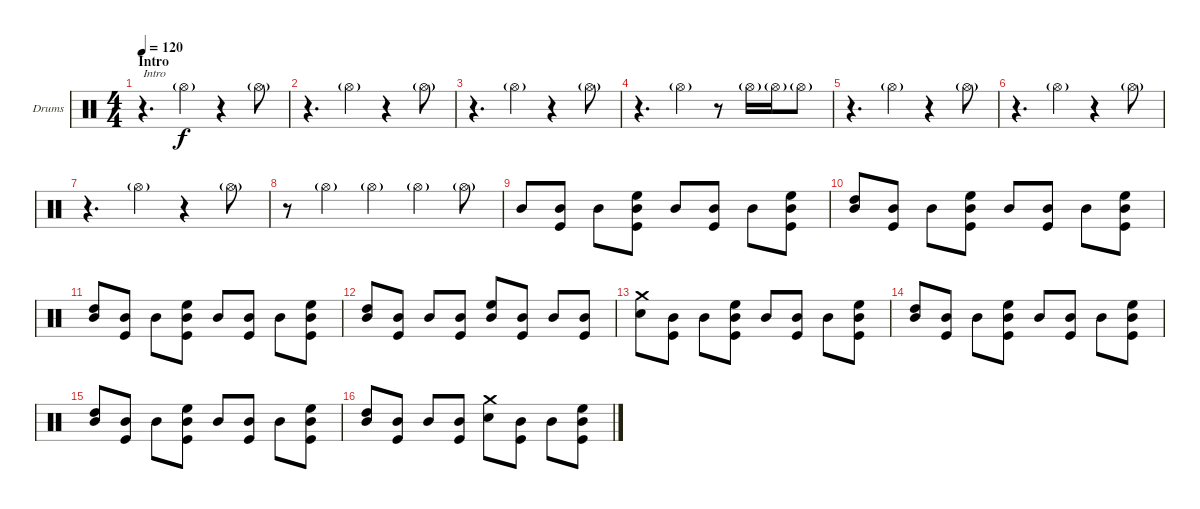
\bracketExtendMode groupsimilarinstruments
\firstSystemTrackNameOrientation horizontal
\otherSystemsTrackNameOrientation horizontal
\track ("Drumkit" "Drums") {instrument percussion}
\staff {score}
\articulation defaults
\ts (4 4)
\section ("" "Intro")
\tempo 120
\clef neutral
\ks c
r.4{d txt "Intro" dy f} "Hi-Hat (open)"{g}.4 r.4 "Hi-Hat (open)"{g}.8 |
r.4{d} "Hi-Hat (open)"{g}.4 r.4 "Hi-Hat (open)"{g}.8 |
r.4{d} "Hi-Hat (open)"{g}.4 r.4 "Hi-Hat (open)"{g}.8 |
r.4{d} "Hi-Hat (open)"{g}.4 r.8 "Hi-Hat (open)"{g}.16 "Hi-Hat (open)"{g}.16 "Hi-Hat (open)"{g}.8 |
r.4{d} "Hi-Hat (open)"{g}.4 r.4 "Hi-Hat (open)"{g}.8 |
r.4{d} "Hi-Hat (open)"{g}.4 r.4 "Hi-Hat (open)"{g}.8 |
r.4{d} "Hi-Hat (open)"{g}.4 r.4 "Hi-Hat (open)"{g}.8 |
r.8 "Hi-Hat (open)"{g}.4 "Hi-Hat (open)"{g}.4 "Hi-Hat (open)"{g}.4 "Hi-Hat (open)"{g}.8 |
"Mid Tom (hit)".8 ("Mid Tom (hit)" "Kick (hit)").8 "Mid Tom (hit)".8 ("High Floor Tom (hit)" "Mid Tom (hit)" "Kick (hit)").8 "Mid Tom (hit)".8 ("Mid Tom (hit)" "Kick (hit)").8 "Mid Tom (hit)".8 ("High Floor Tom (hit)" "Mid Tom (hit)" "Kick (hit)").8 |
("High Tom (hit)" "Mid Tom (hit)").8 ("Mid Tom (hit)" "Kick (hit)").8 "Mid Tom (hit)".8 ("High Floor Tom (hit)" "Mid Tom (hit)" "Kick (hit)").8 "Mid Tom (hit)".8 ("Mid Tom (hit)" "Kick (hit)").8 "Mid Tom (hit)".8 ("High Floor Tom (hit)" "Mid Tom (hit)" "Kick (hit)").8 |
("High Tom (hit)" "Mid Tom (hit)").8 ("Mid Tom (hit)" "Kick (hit)").8 "Mid Tom (hit)".8 ("High Floor Tom (hit)" "Mid Tom (hit)" "Kick (hit)").8 "Mid Tom (hit)".8 ("Mid Tom (hit)" "Kick (hit)").8 "Mid Tom (hit)".8 ("High Floor Tom (hit)" "Mid Tom (hit)" "Kick (hit)").8 |
("High Tom (hit)" "Mid Tom (hit)").8 ("Mid Tom (hit)" "Kick (hit)").8 "Mid Tom (hit)".8 ("Mid Tom (hit)" "Kick (hit)").8 ("High Floor Tom (hit)" "Mid Tom (hit)").8 ("Mid Tom (hit)" "Kick (hit)").8 "Mid Tom (hit)".8 ("Mid Tom (hit)" "Kick (hit)").8 |
("Crash medium (hit)" "Snare (hit) 2").8 ("Mid Tom (hit)" "Kick (hit)").8 "Mid Tom (hit)".8 ("High Floor Tom (hit)" "Mid Tom (hit)" "Kick (hit)").8 "Mid Tom (hit)".8 ("Mid Tom (hit)" "Kick (hit)").8 "Mid Tom (hit)".8 ("High Floor Tom (hit)" "Mid Tom (hit)" "Kick (hit)").8 |
("High Tom (hit)" "Mid Tom (hit)").8 ("Mid Tom (hit)" "Kick (hit)").8 "Mid Tom (hit)".8 ("High Floor Tom (hit)" "Mid Tom (hit)" "Kick (hit)").8 "Mid Tom (hit)".8 ("Mid Tom (hit)" "Kick (hit)").8 "Mid Tom (hit)".8 ("High Floor Tom (hit)" "Mid Tom (hit)" "Kick (hit)").8 |
("High Tom (hit)" "Mid Tom (hit)").8 ("Mid Tom (hit)" "Kick (hit)").8 "Mid Tom (hit)".8 ("High Floor Tom (hit)" "Mid Tom (hit)" "Kick (hit)").8 "Mid Tom (hit)".8 ("Mid Tom (hit)" "Kick (hit)").8 "Mid Tom (hit)".8 ("High Floor Tom (hit)" "Mid Tom (hit)" "Kick (hit)").8 |
("High Tom (hit)" "Mid Tom (hit)").8 ("Mid Tom (hit)" "Kick (hit)").8 "Mid Tom (hit)".8 ("Mid Tom (hit)" "Kick (hit)").8 ("Crash medium (hit)" "Snare (hit) 2").8 ("Mid Tom (hit)" "Kick (hit)").8 "Mid Tom (hit)".8 ("High Floor Tom (hit)" "Mid Tom (hit)" "Kick (hit)").8
